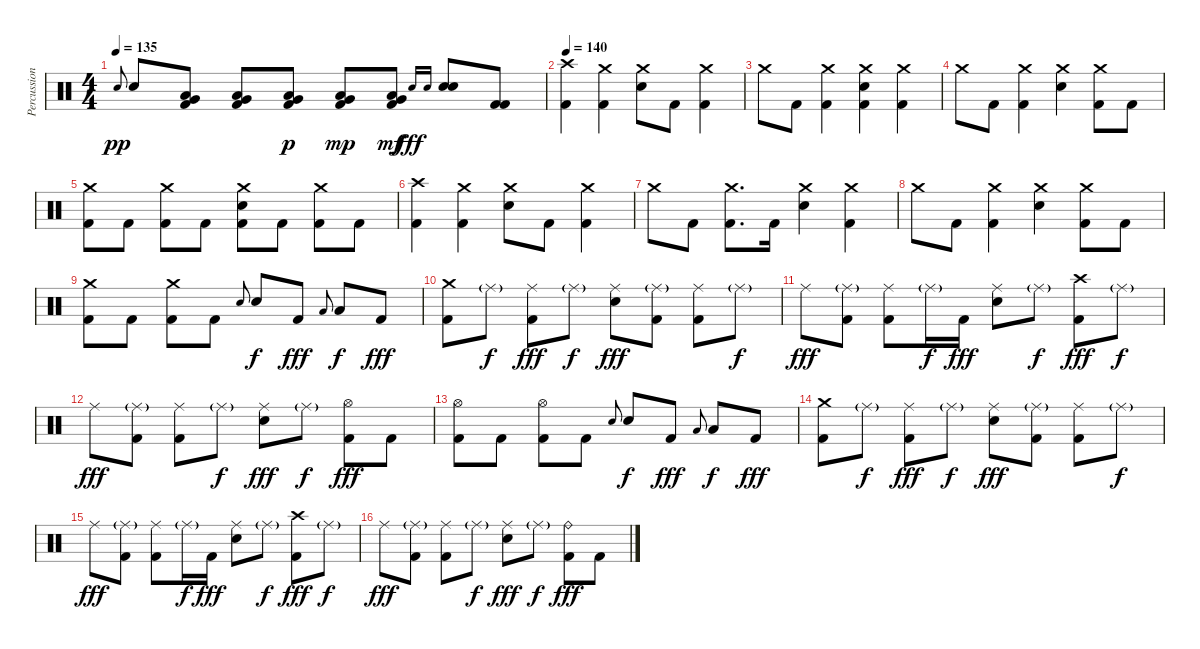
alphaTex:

\track ("Percussion" "Percussion") {instrument percussion}
\staff {score}
\articulation defaults
\ts (4 4)
\tempo 135
\clef neutral
\ks c "Electric Snare (hit)".8{gr onbeat dy pp} "Electric Snare (hit)".8
("Very Low Tom (hit)" "Low Floor Tom (hit)" "Kick (hit) 2").8 ("Very Low Tom (hit)" "Low Floor Tom (hit)" "Kick (hit) 2").8 ("Very Low Tom (hit)" "Low Floor Tom (hit)" "Kick (hit) 2").8{dy p} ("Very Low Tom (hit)" "Low Floor Tom (hit)" "Kick (hit) 2").8{dy mp} ("Very Low Tom (hit)" "Low Floor Tom (hit)" "Kick (hit) 2").8{dy mf} "Electric Snare (hit)".16{gr onbeat dy fff} "Electric Snare (hit)".16{gr onbeat} ("Electric Snare (hit)" "Electric Snare (hit)").8 ("Kick (hit) 2" "Kick (hit) 2").8 |
\tempo 140
("Crash high (hit)" "Kick (hit) 2").4 ("Crash medium (hit)" "Kick (hit) 2").4 ("Crash medium (hit)" "Electric Snare (hit)").8 "Kick (hit) 2".8 ("Crash medium (hit)" "Kick (hit) 2").4 |
"Crash medium (hit)".8 "Kick (hit) 2".8 ("Crash medium (hit)" "Kick (hit) 2").4 ("Crash medium (hit)" "Electric Snare (hit)" "Kick (hit) 2").4 ("Crash medium (hit)" "Kick (hit) 2").4 |
"Crash medium (hit)".8 "Kick (hit) 2".8 ("Crash medium (hit)" "Kick (hit) 2").4 ("Crash medium (hit)" "Electric Snare (hit)").4 ("Crash medium (hit)" "Kick (hit) 2").8 "Kick (hit) 2".8 |
("Crash medium (hit)" "Kick (hit) 2").8 "Kick (hit) 2".8 ("Crash medium (hit)" "Kick (hit) 2").8 "Kick (hit) 2".8 ("Crash medium (hit)" "Electric Snare (hit)" "Kick (hit) 2").8 "Kick (hit) 2".8 ("Crash medium (hit)" "Kick (hit) 2").8 "Kick (hit) 2".8 |
("Crash high (hit)" "Kick (hit) 2").4 ("Crash medium (hit)" "Kick (hit) 2").4 ("Crash medium (hit)" "Electric Snare (hit)").8 "Kick (hit) 2".8 ("Crash medium (hit)" "Kick (hit) 2").4 |
"Crash medium (hit)".8 "Kick (hit) 2".8 ("Crash medium (hit)" "Kick (hit) 2").8{d} "Kick (hit) 2".16 ("Crash medium (hit)" "Electric Snare (hit)").4 ("Crash medium (hit)" "Kick (hit) 2").4 |
"Crash medium (hit)".8 "Kick (hit) 2".8 ("Crash medium (hit)" "Kick (hit) 2").4 ("Crash medium (hit)" "Electric Snare (hit)").4 ("Crash medium (hit)" "Kick (hit) 2").8 "Kick (hit) 2".8 |
("Crash medium (hit)" "Kick (hit) 2").8 "Kick (hit) 2".8 ("Crash medium (hit)" "Kick (hit) 2").8 "Kick (hit) 2".8 "Electric Snare (hit)".8{gr onbeat} "Electric Snare (hit)".8{dy f} "Kick (hit) 2".8{dy fff} "Low Tom (hit)".8{gr onbeat} "Low Tom (hit)".8{dy f} "Kick (hit) 2".8{dy fff} |
("Crash medium (hit)" "Kick (hit) 2").8 "Ride (middle)"{g}.8{dy f} ("Ride (middle)" "Kick (hit) 2").8{dy fff} "Ride (middle)"{g}.8{dy f} ("Ride (middle)" "Electric Snare (hit)").8{dy fff} ("Ride (middle)"{g} "Kick (hit) 2").8 ("Ride (middle)" "Kick (hit) 2").8 "Ride (middle)"{g}.8{dy f} |
"Ride (middle)".8{dy fff} ("Ride (middle)"{g} "Kick (hit) 2").8 ("Ride (middle)" "Kick (hit) 2").8 "Ride (middle)"{g}.16{dy f} "Kick (hit) 2".16{dy fff} ("Ride (middle)" "Electric Snare (hit)").8 "Ride (middle)"{g}.8{dy f} ("Crash high (hit)" "Kick (hit) 2").8{dy fff} "Ride (middle)"{g}.8{dy f} |
"Ride (middle)".8{dy fff} ("Ride (middle)"{g} "Kick (hit) 2").8 ("Ride (middle)" "Kick (hit) 2").8 "Ride (middle)"{g}.8{dy f} ("Ride (middle)" "Electric Snare (hit)").8{dy fff} "Ride (middle)"{g}.8{dy f} ("Hi-Hat (open)" "Kick (hit) 2").8{dy fff} "Kick (hit) 2".8 |
("Hi-Hat (open)" "Kick (hit) 2").8 "Kick (hit) 2".8 ("Hi-Hat (open)" "Kick (hit) 2").8 "Kick (hit) 2".8 "Electric Snare (hit)".8{gr onbeat} "Electric Snare (hit)".8{dy f} "Kick (hit) 2".8{dy fff} "Low Tom (hit)".8{gr onbeat} "Low Tom (hit)".8{dy f} "Kick (hit) 2".8{dy fff} |
("Crash medium (hit)" "Kick (hit) 2").8 "Ride (middle)"{g}.8{dy f} ("Ride (middle)" "Kick (hit) 2").8{dy fff} "Ride (middle)"{g}.8{dy f} ("Ride (middle)" "Electric Snare (hit)").8{dy fff} ("Ride (middle)"{g} "Kick (hit) 2").8 ("Ride (middle)" "Kick (hit) 2").8 "Ride (middle)"{g}.8{dy f} |
"Ride (middle)".8{dy fff} ("Ride (middle)"{g} "Kick (hit) 2").8 ("Ride (middle)" "Kick (hit) 2").8 "Ride (middle)"{g}.16{dy f} "Kick (hit) 2".16{dy fff} ("Ride (middle)" "Electric Snare (hit)").8 "Ride (middle)"{g}.8{dy f} ("Crash high (hit)" "Kick (hit) 2").8{dy fff} "Ride (middle)"{g}.8{dy f} |
"Ride (middle)".8{dy fff} ("Ride (middle)"{g} "Kick (hit) 2").8 ("Ride (middle)" "Kick (hit) 2").8 "Ride (middle)"{g}.8{dy f} ("Ride (middle)" "Electric Snare (hit)").8{dy fff} "Ride (middle)"{g}.8{dy f} ("Ride (bell)" "Kick (hit) 2").8{dy fff} "Kick (hit) 2".8
